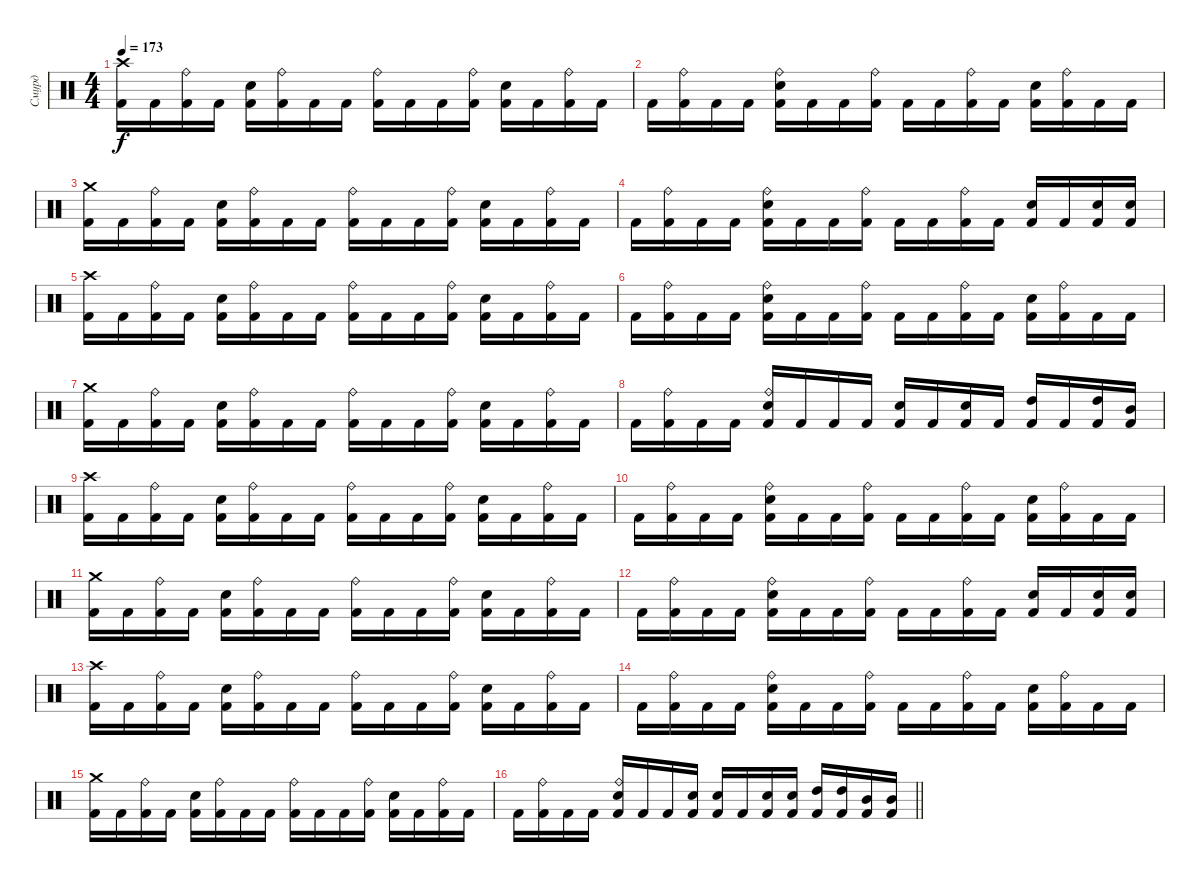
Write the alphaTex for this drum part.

\track ("Смурд" "Смурд") {instrument percussion}
\staff {score}
\articulation defaults
\ts (4 4)
\tempo 173
\clef neutral
\ks c
("Crash high (hit)" "Kick (hit) 2").16{dy f} "Kick (hit) 2".16 ("Ride (bell)" "Kick (hit) 2").16 "Kick (hit) 2".16 ("Electric Snare (hit)" "Kick (hit) 2").16 ("Ride (bell)" "Kick (hit) 2").16 "Kick (hit) 2".16 "Kick (hit) 2".16 ("Ride (bell)" "Kick (hit) 2").16 "Kick (hit) 2".16 "Kick (hit) 2".16 ("Ride (bell)" "Kick (hit) 2").16 ("Electric Snare (hit)" "Kick (hit) 2").16 "Kick (hit) 2".16 ("Ride (bell)" "Kick (hit) 2").16 "Kick (hit) 2".16 |
"Kick (hit) 2".16 ("Ride (bell)" "Kick (hit) 2").16 "Kick (hit) 2".16 "Kick (hit) 2".16 ("Ride (bell)" "Electric Snare (hit)" "Kick (hit) 2").16 "Kick (hit) 2".16 "Kick (hit) 2".16 ("Ride (bell)" "Kick (hit) 2").16 "Kick (hit) 2".16 "Kick (hit) 2".16 ("Ride (bell)" "Kick (hit) 2").16 "Kick (hit) 2".16 ("Electric Snare (hit)" "Kick (hit) 2").16 ("Ride (bell)" "Kick (hit) 2").16 "Kick (hit) 2".16 "Kick (hit) 2".16 |
("Crash medium (hit)" "Kick (hit) 2").16 "Kick (hit) 2".16 ("Ride (bell)" "Kick (hit) 2").16 "Kick (hit) 2".16 ("Electric Snare (hit)" "Kick (hit) 2").16 ("Ride (bell)" "Kick (hit) 2").16 "Kick (hit) 2".16 "Kick (hit) 2".16 ("Ride (bell)" "Kick (hit) 2").16 "Kick (hit) 2".16 "Kick (hit) 2".16 ("Ride (bell)" "Kick (hit) 2").16 ("Electric Snare (hit)" "Kick (hit) 2").16 "Kick (hit) 2".16 ("Ride (bell)" "Kick (hit) 2").16 "Kick (hit) 2".16 |
"Kick (hit) 2".16 ("Ride (bell)" "Kick (hit) 2").16 "Kick (hit) 2".16 "Kick (hit) 2".16 ("Ride (bell)" "Electric Snare (hit)" "Kick (hit) 2").16 "Kick (hit) 2".16 "Kick (hit) 2".16 ("Ride (bell)" "Kick (hit) 2").16 "Kick (hit) 2".16 "Kick (hit) 2".16 ("Ride (bell)" "Kick (hit) 2").16 "Kick (hit) 2".16 ("Electric Snare (hit)" "Kick (hit) 2").16 "Kick (hit) 2".16 ("Electric Snare (hit)" "Kick (hit) 2").16 ("Electric Snare (hit)" "Kick (hit) 2").16 |
("Crash high (hit)" "Kick (hit) 2").16 "Kick (hit) 2".16 ("Ride (bell)" "Kick (hit) 2").16 "Kick (hit) 2".16 ("Electric Snare (hit)" "Kick (hit) 2").16 ("Ride (bell)" "Kick (hit) 2").16 "Kick (hit) 2".16 "Kick (hit) 2".16 ("Ride (bell)" "Kick (hit) 2").16 "Kick (hit) 2".16 "Kick (hit) 2".16 ("Ride (bell)" "Kick (hit) 2").16 ("Electric Snare (hit)" "Kick (hit) 2").16 "Kick (hit) 2".16 ("Ride (bell)" "Kick (hit) 2").16 "Kick (hit) 2".16 |
"Kick (hit) 2".16 ("Ride (bell)" "Kick (hit) 2").16 "Kick (hit) 2".16 "Kick (hit) 2".16 ("Ride (bell)" "Electric Snare (hit)" "Kick (hit) 2").16 "Kick (hit) 2".16 "Kick (hit) 2".16 ("Ride (bell)" "Kick (hit) 2").16 "Kick (hit) 2".16 "Kick (hit) 2".16 ("Ride (bell)" "Kick (hit) 2").16 "Kick (hit) 2".16 ("Electric Snare (hit)" "Kick (hit) 2").16 ("Ride (bell)" "Kick (hit) 2").16 "Kick (hit) 2".16 "Kick (hit) 2".16 |
("Crash medium (hit)" "Kick (hit) 2").16 "Kick (hit) 2".16 ("Ride (bell)" "Kick (hit) 2").16 "Kick (hit) 2".16 ("Electric Snare (hit)" "Kick (hit) 2").16 ("Ride (bell)" "Kick (hit) 2").16 "Kick (hit) 2".16 "Kick (hit) 2".16 ("Ride (bell)" "Kick (hit) 2").16 "Kick (hit) 2".16 "Kick (hit) 2".16 ("Ride (bell)" "Kick (hit) 2").16 ("Electric Snare (hit)" "Kick (hit) 2").16 "Kick (hit) 2".16 ("Ride (bell)" "Kick (hit) 2").16 "Kick (hit) 2".16 |
"Kick (hit) 2".16 ("Ride (bell)" "Kick (hit) 2").16 "Kick (hit) 2".16 "Kick (hit) 2".16 ("Ride (bell)" "Electric Snare (hit)" "Kick (hit) 2").16 "Kick (hit) 2".16 "Kick (hit) 2".16 "Kick (hit) 2".16 ("Electric Snare (hit)" "Kick (hit) 2").16 "Kick (hit) 2".16 ("Electric Snare (hit)" "Kick (hit) 2").16 "Kick (hit) 2".16 ("High Tom (hit)" "Kick (hit) 2").16 "Kick (hit) 2".16 ("High Tom (hit)" "Kick (hit) 2").16 ("Mid Tom (hit)" "Kick (hit) 2").16 |
("Crash high (hit)" "Kick (hit) 2").16 "Kick (hit) 2".16 ("Ride (bell)" "Kick (hit) 2").16 "Kick (hit) 2".16 ("Electric Snare (hit)" "Kick (hit) 2").16 ("Ride (bell)" "Kick (hit) 2").16 "Kick (hit) 2".16 "Kick (hit) 2".16 ("Ride (bell)" "Kick (hit) 2").16 "Kick (hit) 2".16 "Kick (hit) 2".16 ("Ride (bell)" "Kick (hit) 2").16 ("Electric Snare (hit)" "Kick (hit) 2").16 "Kick (hit) 2".16 ("Ride (bell)" "Kick (hit) 2").16 "Kick (hit) 2".16 |
"Kick (hit) 2".16 ("Ride (bell)" "Kick (hit) 2").16 "Kick (hit) 2".16 "Kick (hit) 2".16 ("Ride (bell)" "Electric Snare (hit)" "Kick (hit) 2").16 "Kick (hit) 2".16 "Kick (hit) 2".16 ("Ride (bell)" "Kick (hit) 2").16 "Kick (hit) 2".16 "Kick (hit) 2".16 ("Ride (bell)" "Kick (hit) 2").16 "Kick (hit) 2".16 ("Electric Snare (hit)" "Kick (hit) 2").16 ("Ride (bell)" "Kick (hit) 2").16 "Kick (hit) 2".16 "Kick (hit) 2".16 |
("Crash medium (hit)" "Kick (hit) 2").16 "Kick (hit) 2".16 ("Ride (bell)" "Kick (hit) 2").16 "Kick (hit) 2".16 ("Electric Snare (hit)" "Kick (hit) 2").16 ("Ride (bell)" "Kick (hit) 2").16 "Kick (hit) 2".16 "Kick (hit) 2".16 ("Ride (bell)" "Kick (hit) 2").16 "Kick (hit) 2".16 "Kick (hit) 2".16 ("Ride (bell)" "Kick (hit) 2").16 ("Electric Snare (hit)" "Kick (hit) 2").16 "Kick (hit) 2".16 ("Ride (bell)" "Kick (hit) 2").16 "Kick (hit) 2".16 |
"Kick (hit) 2".16 ("Ride (bell)" "Kick (hit) 2").16 "Kick (hit) 2".16 "Kick (hit) 2".16 ("Ride (bell)" "Electric Snare (hit)" "Kick (hit) 2").16 "Kick (hit) 2".16 "Kick (hit) 2".16 ("Ride (bell)" "Kick (hit) 2").16 "Kick (hit) 2".16 "Kick (hit) 2".16 ("Ride (bell)" "Kick (hit) 2").16 "Kick (hit) 2".16 ("Electric Snare (hit)" "Kick (hit) 2").16 "Kick (hit) 2".16 ("Electric Snare (hit)" "Kick (hit) 2").16 ("Electric Snare (hit)" "Kick (hit) 2").16 |
("Crash high (hit)" "Kick (hit) 2").16 "Kick (hit) 2".16 ("Ride (bell)" "Kick (hit) 2").16 "Kick (hit) 2".16 ("Electric Snare (hit)" "Kick (hit) 2").16 ("Ride (bell)" "Kick (hit) 2").16 "Kick (hit) 2".16 "Kick (hit) 2".16 ("Ride (bell)" "Kick (hit) 2").16 "Kick (hit) 2".16 "Kick (hit) 2".16 ("Ride (bell)" "Kick (hit) 2").16 ("Electric Snare (hit)" "Kick (hit) 2").16 "Kick (hit) 2".16 ("Ride (bell)" "Kick (hit) 2").16 "Kick (hit) 2".16 |
"Kick (hit) 2".16 ("Ride (bell)" "Kick (hit) 2").16 "Kick (hit) 2".16 "Kick (hit) 2".16 ("Ride (bell)" "Electric Snare (hit)" "Kick (hit) 2").16 "Kick (hit) 2".16 "Kick (hit) 2".16 ("Ride (bell)" "Kick (hit) 2").16 "Kick (hit) 2".16 "Kick (hit) 2".16 ("Ride (bell)" "Kick (hit) 2").16 "Kick (hit) 2".16 ("Electric Snare (hit)" "Kick (hit) 2").16 ("Ride (bell)" "Kick (hit) 2").16 "Kick (hit) 2".16 "Kick (hit) 2".16 |
("Crash medium (hit)" "Kick (hit) 2").16 "Kick (hit) 2".16 ("Ride (bell)" "Kick (hit) 2").16 "Kick (hit) 2".16 ("Electric Snare (hit)" "Kick (hit) 2").16 ("Ride (bell)" "Kick (hit) 2").16 "Kick (hit) 2".16 "Kick (hit) 2".16 ("Ride (bell)" "Kick (hit) 2").16 "Kick (hit) 2".16 "Kick (hit) 2".16 ("Ride (bell)" "Kick (hit) 2").16 ("Electric Snare (hit)" "Kick (hit) 2").16 "Kick (hit) 2".16 ("Ride (bell)" "Kick (hit) 2").16 "Kick (hit) 2".16 |
\barLineRight lightlight "Kick (hit) 2".16
("Ride (bell)" "Kick (hit) 2").16 "Kick (hit) 2".16 "Kick (hit) 2".16 ("Ride (bell)" "Electric Snare (hit)" "Kick (hit) 2").16 "Kick (hit) 2".16 "Kick (hit) 2".16 ("Electric Snare (hit)" "Kick (hit) 2").16 ("Electric Snare (hit)" "Kick (hit) 2").16 "Kick (hit) 2".16 ("Electric Snare (hit)" "Kick (hit) 2").16 ("Electric Snare (hit)" "Kick (hit) 2").16 ("High Tom (hit)" "Kick (hit) 2").16 ("High Tom (hit)" "Kick (hit) 2").16 ("Mid Tom (hit)" "Kick (hit) 2").16 ("Mid Tom (hit)" "Kick (hit) 2").16
